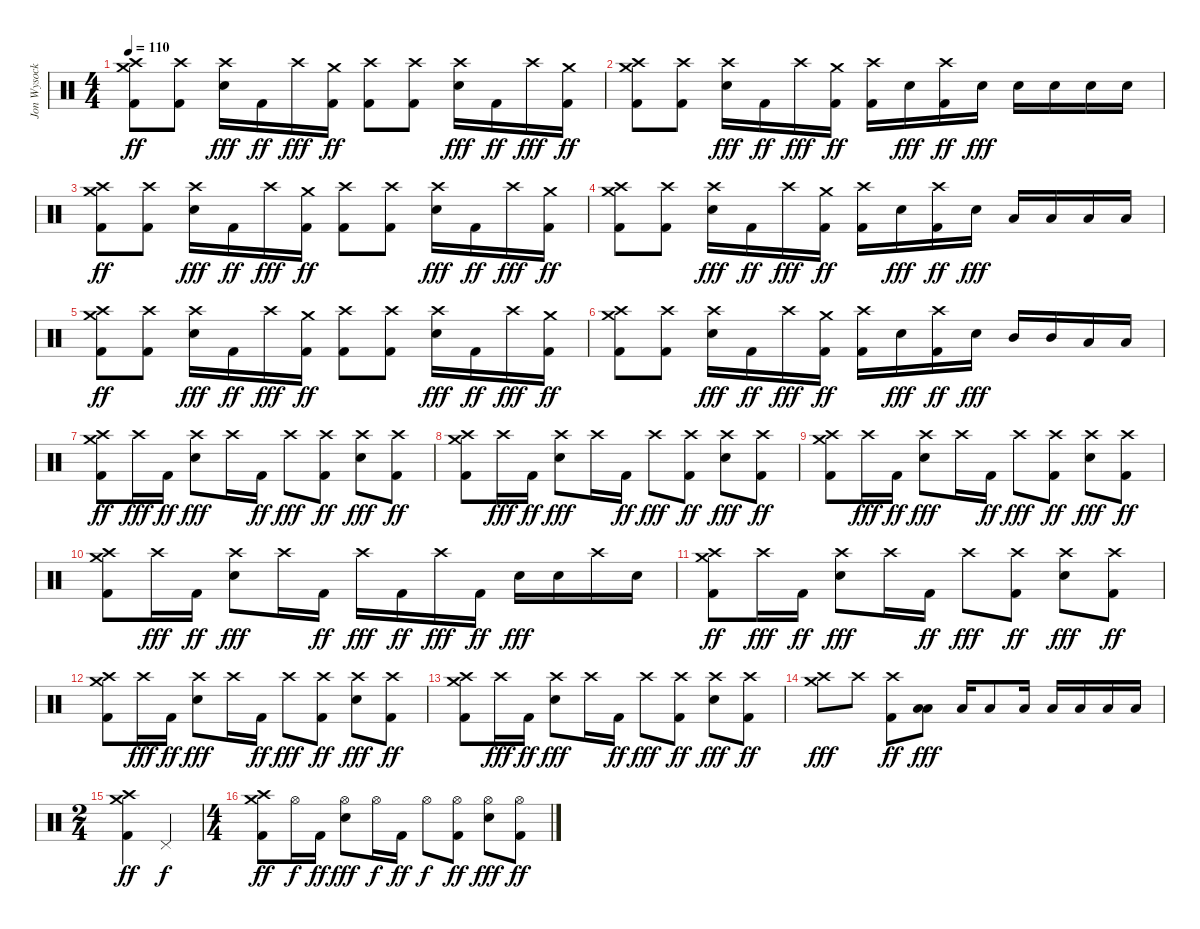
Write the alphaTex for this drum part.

\track ("Jon Wysocki" "Jon Wysock") {instrument percussion}
\staff {score}
\articulation defaults
\ts (4 4)
\tempo 110
\clef neutral
\ks c
("Crash medium (hit)" "Crash high (hit)" "Kick (hit) 2").8{dy ff} ("Crash high (hit)" "Kick (hit) 2").8 ("Crash high (hit)" "Electric Snare (hit)").16{dy fff} "Kick (hit) 2".16{dy ff} "Crash high (hit)".16{dy fff} ("Crash medium (hit)" "Kick (hit) 2").16{dy ff} ("Crash high (hit)" "Kick (hit) 2").8 ("Crash high (hit)" "Kick (hit) 2").8 ("Crash high (hit)" "Electric Snare (hit)").16{dy fff} "Kick (hit) 2".16{dy ff} "Crash high (hit)".16{dy fff} ("Crash medium (hit)" "Kick (hit) 2").16{dy ff} |
("Crash medium (hit)" "Crash high (hit)" "Kick (hit) 2").8 ("Crash high (hit)" "Kick (hit) 2").8 ("Crash high (hit)" "Electric Snare (hit)").16{dy fff} "Kick (hit) 2".16{dy ff} "Crash high (hit)".16{dy fff} ("Crash medium (hit)" "Kick (hit) 2").16{dy ff} ("Crash high (hit)" "Kick (hit) 2").16 "Electric Snare (hit)".16{dy fff} ("Crash high (hit)" "Kick (hit) 2").16{dy ff} "Electric Snare (hit)".16{dy fff} "Electric Snare (hit)".16 "Electric Snare (hit)".16 "Electric Snare (hit)".16 "Electric Snare (hit)".16 |
("Crash medium (hit)" "Crash high (hit)" "Kick (hit) 2").8{dy ff} ("Crash high (hit)" "Kick (hit) 2").8 ("Crash high (hit)" "Electric Snare (hit)").16{dy fff} "Kick (hit) 2".16{dy ff} "Crash high (hit)".16{dy fff} ("Crash medium (hit)" "Kick (hit) 2").16{dy ff} ("Crash high (hit)" "Kick (hit) 2").8 ("Crash high (hit)" "Kick (hit) 2").8 ("Crash high (hit)" "Electric Snare (hit)").16{dy fff} "Kick (hit) 2".16{dy ff} "Crash high (hit)".16{dy fff} ("Crash medium (hit)" "Kick (hit) 2").16{dy ff} |
("Crash medium (hit)" "Crash high (hit)" "Kick (hit) 2").8 ("Crash high (hit)" "Kick (hit) 2").8 ("Crash high (hit)" "Electric Snare (hit)").16{dy fff} "Kick (hit) 2".16{dy ff} "Crash high (hit)".16{dy fff} ("Crash medium (hit)" "Kick (hit) 2").16{dy ff} ("Crash high (hit)" "Kick (hit) 2").16 "Electric Snare (hit)".16{dy fff} ("Crash high (hit)" "Kick (hit) 2").16{dy ff} "Electric Snare (hit)".16{dy fff} "Low Floor Tom (hit)".16 "Low Floor Tom (hit)".16 "Low Floor Tom (hit)".16 "Low Floor Tom (hit)".16 |
("Crash medium (hit)" "Crash high (hit)" "Kick (hit) 2").8{dy ff} ("Crash high (hit)" "Kick (hit) 2").8 ("Crash high (hit)" "Electric Snare (hit)").16{dy fff} "Kick (hit) 2".16{dy ff} "Crash high (hit)".16{dy fff} ("Crash medium (hit)" "Kick (hit) 2").16{dy ff} ("Crash high (hit)" "Kick (hit) 2").8 ("Crash high (hit)" "Kick (hit) 2").8 ("Crash high (hit)" "Electric Snare (hit)").16{dy fff} "Kick (hit) 2".16{dy ff} "Crash high (hit)".16{dy fff} ("Crash medium (hit)" "Kick (hit) 2").16{dy ff} |
("Crash medium (hit)" "Crash high (hit)" "Kick (hit) 2").8 ("Crash high (hit)" "Kick (hit) 2").8 ("Crash high (hit)" "Electric Snare (hit)").16{dy fff} "Kick (hit) 2".16{dy ff} "Crash high (hit)".16{dy fff} ("Crash medium (hit)" "Kick (hit) 2").16{dy ff} ("Crash high (hit)" "Kick (hit) 2").16 "Electric Snare (hit)".16{dy fff} ("Crash high (hit)" "Kick (hit) 2").16{dy ff} "Electric Snare (hit)".16{dy fff} "Mid Tom (hit)".16 "Mid Tom (hit)".16 "Low Tom (hit)".16 "Low Tom (hit)".16 |
("Crash medium (hit)" "Crash high (hit)" "Kick (hit) 2").8{dy ff} "Crash high (hit)".16{dy fff} "Kick (hit) 2".16{dy ff} ("Crash high (hit)" "Electric Snare (hit)").8{dy fff} "Crash high (hit)".16 "Kick (hit) 2".16{dy ff} "Crash high (hit)".8{dy fff} ("Crash high (hit)" "Kick (hit) 2").8{dy ff} ("Crash high (hit)" "Electric Snare (hit)").8{dy fff} ("Crash high (hit)" "Kick (hit) 2").8{dy ff} |
("Crash medium (hit)" "Crash high (hit)" "Kick (hit) 2").8 "Crash high (hit)".16{dy fff} "Kick (hit) 2".16{dy ff} ("Crash high (hit)" "Electric Snare (hit)").8{dy fff} "Crash high (hit)".16 "Kick (hit) 2".16{dy ff} "Crash high (hit)".8{dy fff} ("Crash high (hit)" "Kick (hit) 2").8{dy ff} ("Crash high (hit)" "Electric Snare (hit)").8{dy fff} ("Crash high (hit)" "Kick (hit) 2").8{dy ff} |
("Crash medium (hit)" "Crash high (hit)" "Kick (hit) 2").8 "Crash high (hit)".16{dy fff} "Kick (hit) 2".16{dy ff} ("Crash high (hit)" "Electric Snare (hit)").8{dy fff} "Crash high (hit)".16 "Kick (hit) 2".16{dy ff} "Crash high (hit)".8{dy fff} ("Crash high (hit)" "Kick (hit) 2").8{dy ff} ("Crash high (hit)" "Electric Snare (hit)").8{dy fff} ("Crash high (hit)" "Kick (hit) 2").8{dy ff} |
("Crash medium (hit)" "Crash high (hit)" "Kick (hit) 2").8 "Crash high (hit)".16{dy fff} "Kick (hit) 2".16{dy ff} ("Crash high (hit)" "Electric Snare (hit)").8{dy fff} "Crash high (hit)".16 "Kick (hit) 2".16{dy ff} "Crash high (hit)".16{dy fff} "Kick (hit) 2".16{dy ff} "Crash high (hit)".16{dy fff} "Kick (hit) 2".16{dy ff} "Electric Snare (hit)".16{dy fff} "Electric Snare (hit)".16 "Crash high (hit)".16 "Electric Snare (hit)".16 |
("Crash medium (hit)" "Crash high (hit)" "Kick (hit) 2").8{dy ff} "Crash high (hit)".16{dy fff} "Kick (hit) 2".16{dy ff} ("Crash high (hit)" "Electric Snare (hit)").8{dy fff} "Crash high (hit)".16 "Kick (hit) 2".16{dy ff} "Crash high (hit)".8{dy fff} ("Crash high (hit)" "Kick (hit) 2").8{dy ff} ("Crash high (hit)" "Electric Snare (hit)").8{dy fff} ("Crash high (hit)" "Kick (hit) 2").8{dy ff} |
("Crash medium (hit)" "Crash high (hit)" "Kick (hit) 2").8 "Crash high (hit)".16{dy fff} "Kick (hit) 2".16{dy ff} ("Crash high (hit)" "Electric Snare (hit)").8{dy fff} "Crash high (hit)".16 "Kick (hit) 2".16{dy ff} "Crash high (hit)".8{dy fff} ("Crash high (hit)" "Kick (hit) 2").8{dy ff} ("Crash high (hit)" "Electric Snare (hit)").8{dy fff} ("Crash high (hit)" "Kick (hit) 2").8{dy ff} |
("Crash medium (hit)" "Crash high (hit)" "Kick (hit) 2").8 "Crash high (hit)".16{dy fff} "Kick (hit) 2".16{dy ff} ("Crash high (hit)" "Electric Snare (hit)").8{dy fff} "Crash high (hit)".16 "Kick (hit) 2".16{dy ff} "Crash high (hit)".8{dy fff} ("Crash high (hit)" "Kick (hit) 2").8{dy ff} ("Crash high (hit)" "Electric Snare (hit)").8{dy fff} ("Crash high (hit)" "Kick (hit) 2").8{dy ff} |
("Crash medium (hit)" "Crash high (hit)").8{dy fff} "Crash high (hit)".8 ("Crash high (hit)" "Kick (hit) 2").8{dy ff} ("Low Tom (hit)" "Low Floor Tom (hit)").8{dy fff} "Low Floor Tom (hit)".16 "Low Tom (hit)".8 "Low Tom (hit)".16 "Low Floor Tom (hit)".16 "Low Floor Tom (hit)".16 "Low Floor Tom (hit)".16 "Low Floor Tom (hit)".16 |
\ts (2 4)
("Crash medium (hit)" "Crash high (hit)" "Kick (hit) 2").4{dy ff} "Pedal Hi-Hat (hit)".4{dy f} |
\ts (4 4)
("Crash medium (hit)" "Crash high (hit)" "Kick (hit) 2").8{dy ff} "Hi-Hat (open)".16{dy f} "Kick (hit) 2".16{dy ff} ("Hi-Hat (open)" "Electric Snare (hit)").8{dy fff} "Hi-Hat (open)".16{dy f} "Kick (hit) 2".16{dy ff} "Hi-Hat (open)".8{dy f} ("Hi-Hat (open)" "Kick (hit) 2").8{dy ff} ("Hi-Hat (open)" "Electric Snare (hit)").8{dy fff} ("Hi-Hat (open)" "Kick (hit) 2").8{dy ff}
